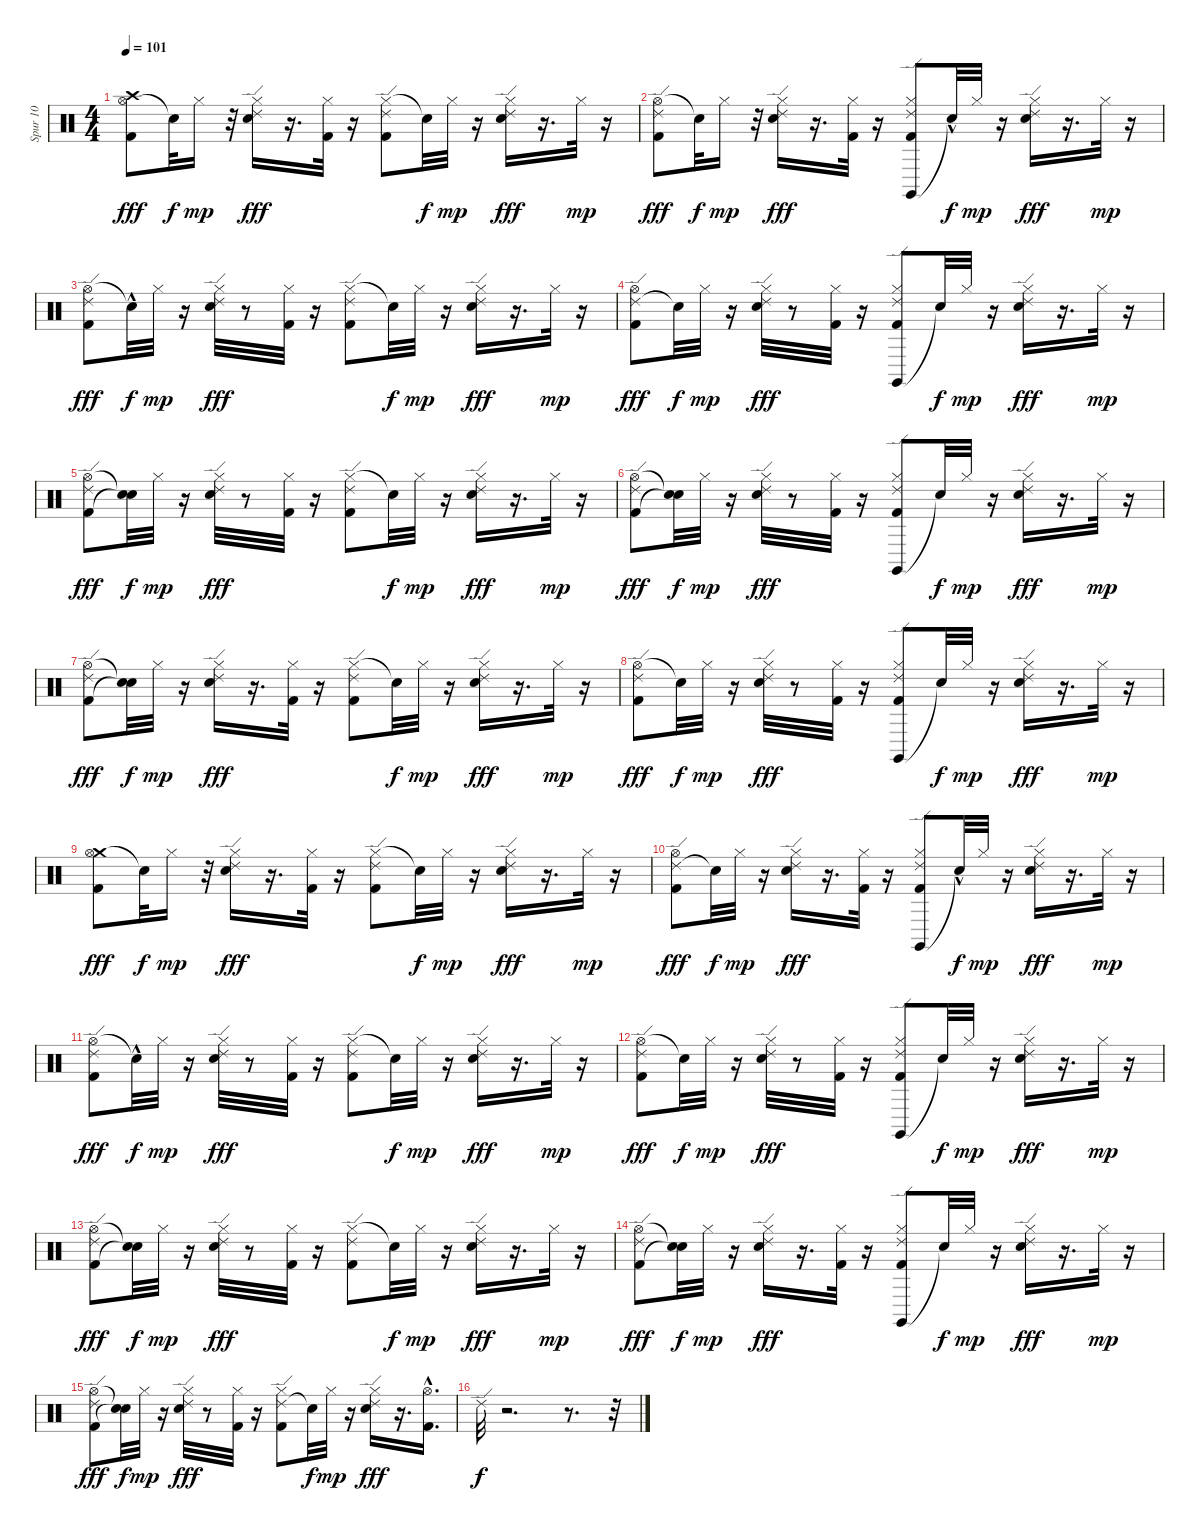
\track ("Spur 10" "Spur 10") {instrument percussion}
\staff {score}
\articulation defaults
\ts (4 4)
\tempo 101
\clef neutral
\ks c
("Hi-Hat (open)" "Kick (hit) 2" "Crash high (hit)").8{dy fff} "Snare (hit)"{t}.32{dy f} "Hi-Hat (closed)".16{dy mp} r.32 ("Hi-Hat (closed)" "Snare (hit) 2" "Ride (edge) 2").16{dy fff} r.16{d} ("Hi-Hat (closed)" "Kick (hit) 2").32 r.16 ("Hi-Hat (closed)" "Kick (hit) 2" "Ride (edge) 2").8 "Snare (hit)"{t}.32{dy f} "Hi-Hat (closed)".32{dy mp} r.16 ("Hi-Hat (closed)" "Snare (hit) 2" "Ride (edge) 2").16{dy fff} r.16{d} "Hi-Hat (closed)".32{dy mp} r.16 |
("Hi-Hat (open)" "Kick (hit) 2" "Ride (edge) 2").8{dy fff} "Snare (hit)"{t}.32{dy f} "Hi-Hat (closed)".16{dy mp} r.32 ("Hi-Hat (closed)" "Snare (hit) 2" "Ride (edge) 2").16{dy fff} r.16{d} ("Hi-Hat (closed)" "Kick (hit) 2").32 r.16 ("Claves (hit)" "Hi-Hat (closed)" "Kick (hit) 2" "Ride (edge) 2").8 "Snare (hit)"{hac t}.32{dy f} "Hi-Hat (closed)".32{dy mp} r.16 ("Hi-Hat (closed)" "Snare (hit) 2" "Ride (edge) 2").16{dy fff} r.16{d} "Hi-Hat (closed)".32{dy mp} r.16 |
("Hi-Hat (open)" "Kick (hit) 2" "Ride (edge) 2").8{dy fff} "Snare (hit)"{hac t}.32{dy f} "Hi-Hat (closed)".32{dy mp} r.16 ("Hi-Hat (closed)" "Snare (hit) 2" "Ride (edge) 2").32{dy fff} r.8 ("Hi-Hat (closed)" "Kick (hit) 2").32 r.16 ("Hi-Hat (closed)" "Kick (hit) 2" "Ride (edge) 2").8 "Snare (hit)"{t}.32{dy f} "Hi-Hat (closed)".32{dy mp} r.16 ("Hi-Hat (closed)" "Snare (hit) 2" "Ride (edge) 2").16{dy fff} r.16{d} "Hi-Hat (closed)".32{dy mp} r.16 |
("Ride (edge) 2" "Hi-Hat (open)" "Kick (hit) 2").8{dy fff} "Snare (hit)"{t}.32{dy f} "Hi-Hat (closed)".32{dy mp} r.16 ("Hi-Hat (closed)" "Snare (hit) 2" "Ride (edge) 2").32{dy fff} r.8 ("Hi-Hat (closed)" "Kick (hit) 2").32 r.16 ("Claves (hit)" "Hi-Hat (closed)" "Kick (hit) 2" "Ride (edge) 2").8 "Snare (hit)"{t}.32{dy f} "Hi-Hat (closed)".32{dy mp} r.16 ("Hi-Hat (closed)" "Snare (hit) 2" "Ride (edge) 2").16{dy fff} r.16{d} "Hi-Hat (closed)".32{dy mp} r.16 |
("Hi-Hat (open)" "Kick (hit) 2" "Ride (edge) 2").8{dy fff} ("Snare (hit)"{t} "Snare (hit)"{t}).32{dy f} "Hi-Hat (closed)".32{dy mp} r.16 ("Hi-Hat (closed)" "Snare (hit) 2" "Ride (edge) 2").32{dy fff} r.8 ("Hi-Hat (closed)" "Kick (hit) 2").32 r.16 ("Hi-Hat (closed)" "Kick (hit) 2" "Ride (edge) 2").8 "Snare (hit)"{t}.32{dy f} "Hi-Hat (closed)".32{dy mp} r.16 ("Hi-Hat (closed)" "Snare (hit) 2" "Ride (edge) 2").16{dy fff} r.16{d} "Hi-Hat (closed)".32{dy mp} r.16 |
("Hi-Hat (open)" "Kick (hit) 2" "Ride (edge) 2").8{dy fff} ("Snare (hit)"{t} "Snare (hit)"{t}).32{dy f} "Hi-Hat (closed)".32{dy mp} r.16 ("Hi-Hat (closed)" "Snare (hit) 2" "Ride (edge) 2").32{dy fff} r.8 ("Hi-Hat (closed)" "Kick (hit) 2").32 r.16 ("Claves (hit)" "Hi-Hat (closed)" "Kick (hit) 2" "Ride (edge) 2").8 "Snare (hit)"{t}.32{dy f} "Hi-Hat (closed)".32{dy mp} r.16 ("Hi-Hat (closed)" "Snare (hit) 2" "Ride (edge) 2").16{dy fff} r.16{d} "Hi-Hat (closed)".32{dy mp} r.16 |
("Hi-Hat (open)" "Kick (hit) 2" "Ride (edge) 2").8{dy fff} ("Snare (hit)"{t} "Snare (hit)"{t}).32{dy f} "Hi-Hat (closed)".32{dy mp} r.16 ("Hi-Hat (closed)" "Snare (hit) 2" "Ride (edge) 2").16{dy fff} r.16{d} ("Hi-Hat (closed)" "Kick (hit) 2").32 r.16 ("Hi-Hat (closed)" "Kick (hit) 2" "Ride (edge) 2").8 "Snare (hit)"{t}.32{dy f} "Hi-Hat (closed)".32{dy mp} r.16 ("Hi-Hat (closed)" "Snare (hit) 2" "Ride (edge) 2").16{dy fff} r.16{d} "Hi-Hat (closed)".32{dy mp} r.16 |
("Hi-Hat (open)" "Kick (hit) 2" "Ride (edge) 2").8{dy fff} "Snare (hit)"{t}.32{dy f} "Hi-Hat (closed)".32{dy mp} r.16 ("Hi-Hat (closed)" "Snare (hit) 2" "Ride (edge) 2").32{dy fff} r.8 ("Hi-Hat (closed)" "Kick (hit) 2").32 r.16 ("Claves (hit)" "Ride (edge) 2" "Hi-Hat (closed)" "Kick (hit) 2").8 "Snare (hit)"{t}.32{dy f} "Hi-Hat (closed)".32{dy mp} r.16 ("Hi-Hat (closed)" "Snare (hit) 2" "Ride (edge) 2").16{dy fff} r.16{d} "Hi-Hat (closed)".32{dy mp} r.16 |
("Crash medium (hit)" "Hi-Hat (open)" "Kick (hit) 2").8{dy fff} "Snare (hit)"{t}.32{dy f} "Hi-Hat (closed)".16{dy mp} r.32 ("Hi-Hat (closed)" "Snare (hit) 2" "Ride (edge) 2").16{dy fff} r.16{d} ("Hi-Hat (closed)" "Kick (hit) 2").32 r.16 ("Hi-Hat (closed)" "Kick (hit) 2" "Ride (edge) 2").8 "Snare (hit)"{t}.32{dy f} "Hi-Hat (closed)".32{dy mp} r.16 ("Hi-Hat (closed)" "Snare (hit) 2" "Ride (edge) 2").16{dy fff} r.16{d} "Hi-Hat (closed)".32{dy mp} r.16 |
("Ride (edge) 2" "Hi-Hat (open)" "Kick (hit) 2").8{dy fff} "Snare (hit)"{t}.32{dy f} "Hi-Hat (closed)".32{dy mp} r.16 ("Hi-Hat (closed)" "Snare (hit) 2" "Ride (edge) 2").16{dy fff} r.16{d} ("Hi-Hat (closed)" "Kick (hit) 2").32 r.16 ("Claves (hit)" "Hi-Hat (closed)" "Kick (hit) 2" "Ride (edge) 2").8 "Snare (hit)"{hac t}.32{dy f} "Hi-Hat (closed)".32{dy mp} r.16 ("Hi-Hat (closed)" "Snare (hit) 2" "Ride (edge) 2").16{dy fff} r.16{d} "Hi-Hat (closed)".32{dy mp} r.16 |
("Hi-Hat (open)" "Kick (hit) 2" "Ride (edge) 2").8{dy fff} "Snare (hit)"{hac t}.32{dy f} "Hi-Hat (closed)".32{dy mp} r.16 ("Hi-Hat (closed)" "Snare (hit) 2" "Ride (edge) 2").32{dy fff} r.8 ("Hi-Hat (closed)" "Kick (hit) 2").32 r.16 ("Hi-Hat (closed)" "Kick (hit) 2" "Ride (edge) 2").8 "Snare (hit)"{t}.32{dy f} "Hi-Hat (closed)".32{dy mp} r.16 ("Hi-Hat (closed)" "Snare (hit) 2" "Ride (edge) 2").16{dy fff} r.16{d} "Hi-Hat (closed)".32{dy mp} r.16 |
("Hi-Hat (open)" "Kick (hit) 2" "Ride (edge) 2").8{dy fff} "Snare (hit)"{t}.32{dy f} "Hi-Hat (closed)".32{dy mp} r.16 ("Ride (edge) 2" "Hi-Hat (closed)" "Snare (hit) 2").32{dy fff} r.8 ("Hi-Hat (closed)" "Kick (hit) 2").32 r.16 ("Claves (hit)" "Hi-Hat (closed)" "Kick (hit) 2" "Ride (edge) 2").8 "Snare (hit)"{t}.32{dy f} "Hi-Hat (closed)".32{dy mp} r.16 ("Hi-Hat (closed)" "Snare (hit) 2" "Ride (edge) 2").16{dy fff} r.16{d} "Hi-Hat (closed)".32{dy mp} r.16 |
("Hi-Hat (open)" "Kick (hit) 2" "Ride (edge) 2").8{dy fff} ("Snare (hit)"{t} "Snare (hit)"{t}).32{dy f} "Hi-Hat (closed)".32{dy mp} r.16 ("Hi-Hat (closed)" "Snare (hit) 2" "Ride (edge) 2").32{dy fff} r.8 ("Hi-Hat (closed)" "Kick (hit) 2").32 r.16 ("Hi-Hat (closed)" "Kick (hit) 2" "Ride (edge) 2").8 "Snare (hit)"{t}.32{dy f} "Hi-Hat (closed)".32{dy mp} r.16 ("Hi-Hat (closed)" "Snare (hit) 2" "Ride (edge) 2").16{dy fff} r.16{d} "Hi-Hat (closed)".32{dy mp} r.16 |
("Hi-Hat (open)" "Kick (hit) 2" "Ride (edge) 2").8{dy fff} ("Snare (hit)"{t} "Snare (hit)"{t}).32{dy f} "Hi-Hat (closed)".32{dy mp} r.16 ("Hi-Hat (closed)" "Snare (hit) 2" "Ride (edge) 2").16{dy fff} r.16{d} ("Hi-Hat (closed)" "Kick (hit) 2").32 r.16 ("Claves (hit)" "Hi-Hat (closed)" "Kick (hit) 2" "Ride (edge) 2").8 "Snare (hit)"{t}.32{dy f} "Hi-Hat (closed)".32{dy mp} r.16 ("Hi-Hat (closed)" "Snare (hit) 2" "Ride (edge) 2").16{dy fff} r.16{d} "Hi-Hat (closed)".32{dy mp} r.16 |
("Hi-Hat (open)" "Kick (hit) 2" "Ride (edge) 2").8{dy fff} ("Snare (hit)"{t} "Snare (hit)"{t}).32{dy f} "Hi-Hat (closed)".32{dy mp} r.16 ("Ride (edge) 2" "Hi-Hat (closed)" "Snare (hit) 2").32{dy fff} r.8 ("Hi-Hat (closed)" "Kick (hit) 2").32 r.16 ("Ride (edge) 2" "Hi-Hat (closed)" "Kick (hit) 2").8 "Snare (hit)"{t}.32{dy f} "Hi-Hat (closed)".32{dy mp} r.16 ("Hi-Hat (closed)" "Snare (hit) 2" "Ride (edge) 2").16{dy fff} r.16{d} ("Hi-Hat (open)" "Kick (hit) 2"{hac}).16{d} |
"Ride (edge) 2".32{dy f} r.2{d} r.8{d} r.32
